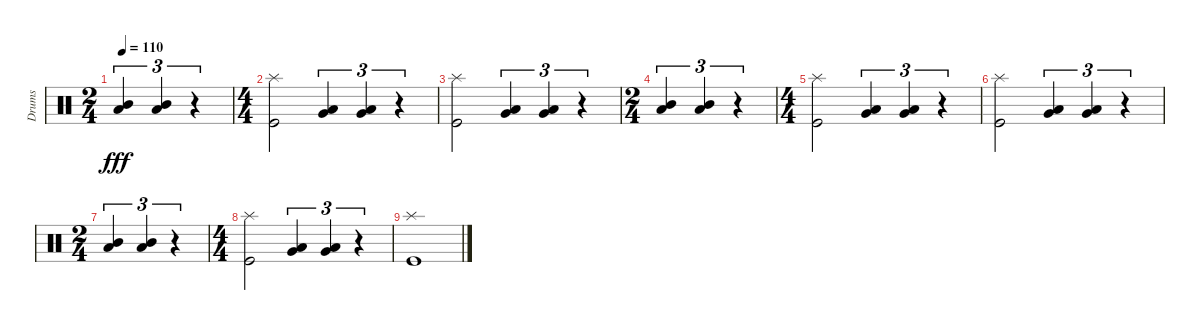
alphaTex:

\track ("Drums" "Drums") {instrument percussion}
\staff {score}
\articulation defaults
\ts (2 4)
\tempo 110
\clef neutral
\ks c
("Mid Tom (hit)" "Low Tom (hit)").4{tu (3 2) dy fff} ("Mid Tom (hit)" "Low Tom (hit)").4{tu (3 2)} r.4{tu (3 2)} |
\ts (4 4)
("Splash (hit)" "Kick (hit)").2 ("Low Tom (hit)" "Very Low Tom (hit)").4{tu (3 2)} ("Low Tom (hit)" "Very Low Tom (hit)").4{tu (3 2)} r.4{tu (3 2)} |
("Splash (hit)" "Kick (hit)").2 ("Low Tom (hit)" "Very Low Tom (hit)").4{tu (3 2)} ("Low Tom (hit)" "Very Low Tom (hit)").4{tu (3 2)} r.4{tu (3 2)} |
\ts (2 4)
("Mid Tom (hit)" "Low Tom (hit)").4{tu (3 2)} ("Mid Tom (hit)" "Low Tom (hit)").4{tu (3 2)} r.4{tu (3 2)} |
\ts (4 4)
("Splash (hit)" "Kick (hit)").2 ("Low Tom (hit)" "Very Low Tom (hit)").4{tu (3 2)} ("Low Tom (hit)" "Very Low Tom (hit)").4{tu (3 2)} r.4{tu (3 2)} |
("Splash (hit)" "Kick (hit)").2 ("Low Tom (hit)" "Very Low Tom (hit)").4{tu (3 2)} ("Low Tom (hit)" "Very Low Tom (hit)").4{tu (3 2)} r.4{tu (3 2)} |
\ts (2 4)
("Mid Tom (hit)" "Low Tom (hit)").4{tu (3 2)} ("Mid Tom (hit)" "Low Tom (hit)").4{tu (3 2)} r.4{tu (3 2)} |
\ts (4 4)
("Splash (hit)" "Kick (hit)").2 ("Low Tom (hit)" "Very Low Tom (hit)").4{tu (3 2)} ("Low Tom (hit)" "Very Low Tom (hit)").4{tu (3 2)} r.4{tu (3 2)} |
("Splash (hit)" "Kick (hit)").1
